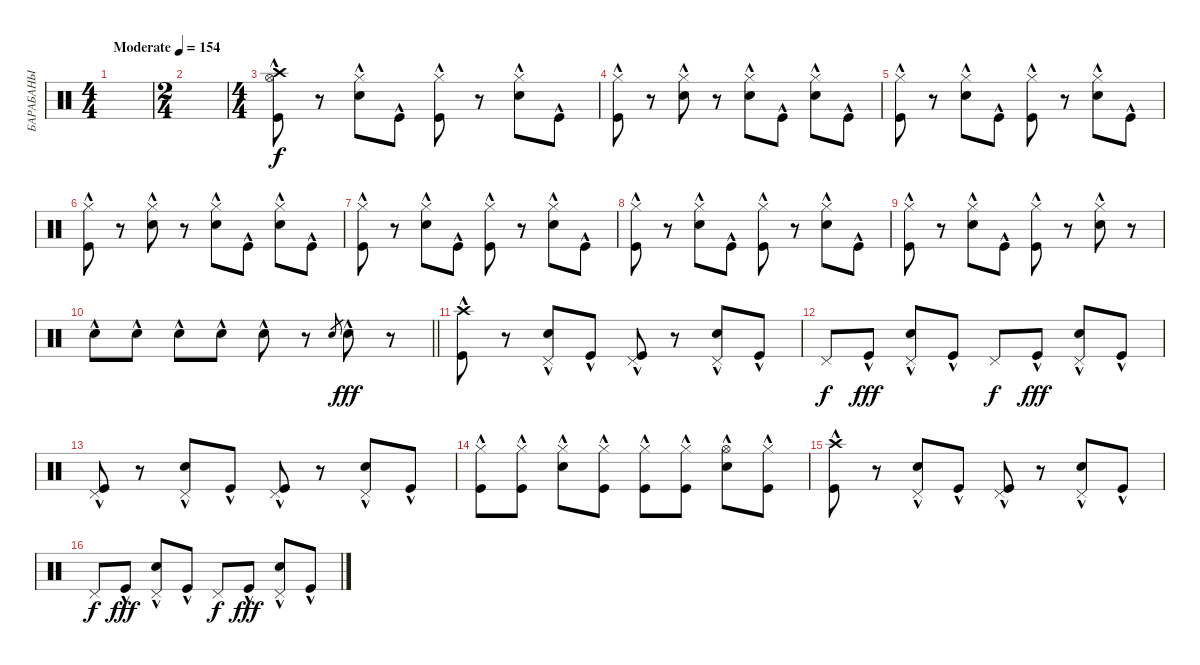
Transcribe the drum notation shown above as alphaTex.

\track ("БАРАБАНЫ" "БАРАБАНЫ") {instrument percussion}
\staff {score}
\articulation defaults
\ts (4 4)
\tempo (154 "Moderate")
\clef neutral
\ks c
|
\ts (2 4)
|
\ts (4 4)
("Hi-Hat (open)"{hac} "Crash high (hit)"{hac} "Kick (hit)"{hac}).8 r.8 ("Hi-Hat (closed)"{hac} "Snare (hit) 2"{hac}).8 "Kick (hit)"{hac}.8 ("Hi-Hat (closed)"{hac} "Kick (hit)"{hac}).8 r.8 ("Hi-Hat (closed)"{hac} "Snare (hit) 2"{hac}).8 "Kick (hit)"{hac}.8 |
("Hi-Hat (closed)"{hac} "Kick (hit)"{hac}).8 r.8 ("Hi-Hat (closed)"{hac} "Snare (hit) 2"{hac}).8 r.8 ("Hi-Hat (closed)"{hac} "Snare (hit) 2"{hac}).8 "Kick (hit)"{hac}.8 ("Hi-Hat (closed)"{hac} "Snare (hit) 2"{hac}).8 "Kick (hit)"{hac}.8 |
("Hi-Hat (closed)"{hac} "Kick (hit)"{hac}).8 r.8 ("Hi-Hat (closed)"{hac} "Snare (hit) 2"{hac}).8 "Kick (hit)"{hac}.8 ("Hi-Hat (closed)"{hac} "Kick (hit)"{hac}).8 r.8 ("Hi-Hat (closed)"{hac} "Snare (hit) 2"{hac}).8 "Kick (hit)"{hac}.8 |
("Hi-Hat (closed)"{hac} "Kick (hit)"{hac}).8 r.8 ("Hi-Hat (closed)"{hac} "Snare (hit) 2"{hac}).8 r.8 ("Hi-Hat (closed)"{hac} "Snare (hit) 2"{hac}).8 "Kick (hit)"{hac}.8 ("Hi-Hat (closed)"{hac} "Snare (hit) 2"{hac}).8 "Kick (hit)"{hac}.8 |
("Hi-Hat (closed)"{hac} "Kick (hit)"{hac}).8 r.8 ("Hi-Hat (closed)"{hac} "Snare (hit) 2"{hac}).8 "Kick (hit)"{hac}.8 ("Hi-Hat (closed)"{hac} "Kick (hit)"{hac}).8 r.8 ("Hi-Hat (closed)"{hac} "Snare (hit) 2"{hac}).8 "Kick (hit)"{hac}.8 |
("Hi-Hat (closed)"{hac} "Kick (hit)"{hac}).8 r.8 ("Hi-Hat (closed)"{hac} "Snare (hit) 2"{hac}).8 "Kick (hit)"{hac}.8 ("Hi-Hat (closed)"{hac} "Kick (hit)"{hac}).8 r.8 ("Hi-Hat (closed)"{hac} "Snare (hit) 2"{hac}).8 "Kick (hit)"{hac}.8 |
("Hi-Hat (closed)"{hac} "Kick (hit)"{hac}).8 r.8 ("Hi-Hat (closed)"{hac} "Snare (hit) 2"{hac}).8 "Kick (hit)"{hac}.8 ("Hi-Hat (closed)"{hac} "Kick (hit)"{hac}).8 r.8 ("Hi-Hat (closed)"{hac} "Snare (hit) 2"{hac}).8 r.8 |
\barLineRight lightlight "Snare (hit) 2"{hac}.8 "Snare (hit) 2"{hac}.8 "Snare (hit) 2"{hac}.8 "Snare (hit) 2"{hac}.8 "Snare (hit) 2"{hac}.8
r.8 "Snare (hit) 2".8{gr dy f} "Snare (hit) 2"{hac}.8{dy fff} r.8 |
("Crash high (hit)"{hac} "Kick (hit)"{hac}).8 r.8 ("Pedal Hi-Hat (hit)" "Snare (hit) 2"{hac}).8 "Kick (hit)"{hac}.8 ("Pedal Hi-Hat (hit)" "Kick (hit)"{hac}).8 r.8 ("Pedal Hi-Hat (hit)" "Snare (hit) 2"{hac}).8 "Kick (hit)"{hac}.8 |
"Pedal Hi-Hat (hit)".8{dy f} "Kick (hit)"{hac}.8{dy fff} ("Pedal Hi-Hat (hit)" "Snare (hit) 2"{hac}).8 "Kick (hit)"{hac}.8 "Pedal Hi-Hat (hit)".8{dy f} "Kick (hit)"{hac}.8{dy fff} ("Pedal Hi-Hat (hit)" "Snare (hit) 2"{hac}).8 "Kick (hit)"{hac}.8 |
("Pedal Hi-Hat (hit)" "Kick (hit)"{hac}).8 r.8 ("Pedal Hi-Hat (hit)" "Snare (hit) 2"{hac}).8 "Kick (hit)"{hac}.8 ("Pedal Hi-Hat (hit)" "Kick (hit)"{hac}).8 r.8 ("Pedal Hi-Hat (hit)" "Snare (hit) 2"{hac}).8 "Kick (hit)"{hac}.8 |
("Hi-Hat (closed)"{hac} "Kick (hit)"{hac}).8 ("Hi-Hat (closed)"{hac} "Kick (hit)"{hac}).8 ("Hi-Hat (closed)"{hac} "Snare (hit) 2"{hac}).8 ("Hi-Hat (closed)"{hac} "Kick (hit)"{hac}).8 ("Hi-Hat (closed)"{hac} "Kick (hit)"{hac}).8 ("Hi-Hat (closed)"{hac} "Kick (hit)"{hac}).8 ("Hi-Hat (open)"{hac} "Snare (hit) 2"{hac}).8 ("Hi-Hat (closed)"{hac} "Kick (hit)"{hac}).8 |
("Crash high (hit)"{hac} "Kick (hit)"{hac}).8 r.8 ("Pedal Hi-Hat (hit)" "Snare (hit) 2"{hac}).8 "Kick (hit)"{hac}.8 ("Pedal Hi-Hat (hit)" "Kick (hit)"{hac}).8 r.8 ("Pedal Hi-Hat (hit)" "Snare (hit) 2"{hac}).8 "Kick (hit)"{hac}.8 |
"Pedal Hi-Hat (hit)".8{dy f} "Kick (hit)"{hac}.8{dy fff} ("Pedal Hi-Hat (hit)" "Snare (hit) 2"{hac}).8 "Kick (hit)"{hac}.8 "Pedal Hi-Hat (hit)".8{dy f} "Kick (hit)"{hac}.8{dy fff} ("Pedal Hi-Hat (hit)" "Snare (hit) 2"{hac}).8 "Kick (hit)"{hac}.8
